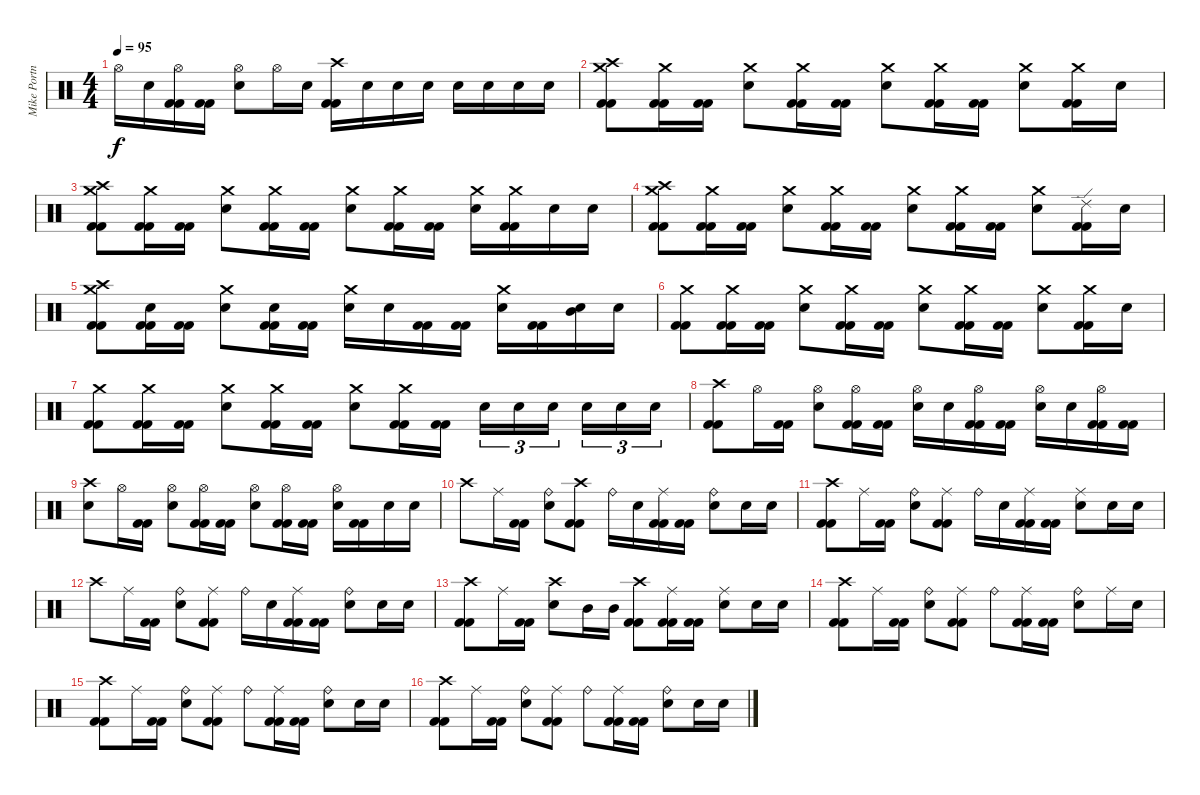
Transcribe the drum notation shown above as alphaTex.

\track ("Mike Portnoy" "Mike Portn") {instrument percussion}
\staff {score}
\articulation defaults
\ts (4 4)
\tempo 95
\clef neutral
\ks c "Hi-Hat (open)".16{dy f} "Snare (hit) 2".16
("Hi-Hat (open)" "Kick (hit) 2" "Kick (hit) 2").16 ("Kick (hit) 2" "Kick (hit) 2").16 ("Hi-Hat (open)" "Snare (hit) 2").8 "Hi-Hat (open)".16 "Snare (hit) 2".16 ("Crash high (hit)" "Kick (hit) 2" "Kick (hit) 2").16 "Snare (hit) 2".16 "Snare (hit) 2".16 "Snare (hit) 2".16 "Snare (hit) 2".16 "Snare (hit) 2".16 "Snare (hit) 2".16 "Snare (hit) 2".16 |
("Crash medium (hit)" "Crash high (hit)" "Kick (hit) 2" "Kick (hit) 2").8 ("Crash medium (hit)" "Kick (hit) 2" "Kick (hit) 2").16 ("Kick (hit) 2" "Kick (hit) 2").16 ("Crash medium (hit)" "Snare (hit) 2").8 ("Crash medium (hit)" "Kick (hit) 2" "Kick (hit) 2").16 ("Kick (hit) 2" "Kick (hit) 2").16 ("Crash medium (hit)" "Snare (hit) 2").8 ("Crash medium (hit)" "Kick (hit) 2" "Kick (hit) 2").16 ("Kick (hit) 2" "Kick (hit) 2").16 ("Crash medium (hit)" "Snare (hit) 2").8 ("Crash medium (hit)" "Kick (hit) 2" "Kick (hit) 2").16 "Snare (hit) 2".16 |
("Crash medium (hit)" "Crash high (hit)" "Kick (hit) 2" "Kick (hit) 2").8 ("Crash medium (hit)" "Kick (hit) 2" "Kick (hit) 2").16 ("Kick (hit) 2" "Kick (hit) 2").16 ("Crash medium (hit)" "Snare (hit) 2").8 ("Crash medium (hit)" "Kick (hit) 2" "Kick (hit) 2").16 ("Kick (hit) 2" "Kick (hit) 2").16 ("Crash medium (hit)" "Snare (hit) 2").8 ("Crash medium (hit)" "Kick (hit) 2" "Kick (hit) 2").16 ("Kick (hit) 2" "Kick (hit) 2").16 ("Crash medium (hit)" "Snare (hit) 2").16 ("Crash medium (hit)" "Kick (hit) 2" "Kick (hit) 2").16 "Snare (hit) 2".16 "Snare (hit) 2".16 |
("Crash medium (hit)" "Crash high (hit)" "Kick (hit) 2" "Kick (hit) 2").8 ("Crash medium (hit)" "Kick (hit) 2" "Kick (hit) 2").16 ("Kick (hit) 2" "Kick (hit) 2").16 ("Crash medium (hit)" "Snare (hit) 2").8 ("Crash medium (hit)" "Kick (hit) 2" "Kick (hit) 2").16 ("Kick (hit) 2" "Kick (hit) 2").16 ("Crash medium (hit)" "Snare (hit) 2").8 ("Crash medium (hit)" "Kick (hit) 2" "Kick (hit) 2").16 ("Kick (hit) 2" "Kick (hit) 2").16 ("Crash medium (hit)" "Snare (hit) 2").8 ("Ride (edge) 2" "Kick (hit) 2" "Kick (hit) 2").16 "Snare (hit) 2".16 |
("Crash medium (hit)" "Crash high (hit)" "Kick (hit) 2" "Kick (hit) 2").8 ("Snare (hit) 2" "Kick (hit) 2" "Kick (hit) 2").16 ("Kick (hit) 2" "Kick (hit) 2").16 ("Crash medium (hit)" "Snare (hit) 2").8 ("Snare (hit) 2" "Kick (hit) 2" "Kick (hit) 2").16 ("Kick (hit) 2" "Kick (hit) 2").16 ("Crash medium (hit)" "Snare (hit) 2").16 "Snare (hit) 2".16 ("Kick (hit) 2" "Kick (hit) 2").16 ("Kick (hit) 2" "Kick (hit) 2").16 ("Crash medium (hit)" "Snare (hit) 2").16 ("Kick (hit) 2" "Kick (hit) 2").16 ("Snare (hit) 2" "Mid Tom (hit)").16 "Snare (hit) 2".16 |
("Crash medium (hit)" "Kick (hit) 2" "Kick (hit) 2").8 ("Crash medium (hit)" "Kick (hit) 2" "Kick (hit) 2").16 ("Kick (hit) 2" "Kick (hit) 2").16 ("Crash medium (hit)" "Snare (hit) 2").8 ("Crash medium (hit)" "Kick (hit) 2" "Kick (hit) 2").16 ("Kick (hit) 2" "Kick (hit) 2").16 ("Crash medium (hit)" "Snare (hit) 2").8 ("Crash medium (hit)" "Kick (hit) 2" "Kick (hit) 2").16 ("Kick (hit) 2" "Kick (hit) 2").16 ("Crash medium (hit)" "Snare (hit) 2").8 ("Crash medium (hit)" "Kick (hit) 2" "Kick (hit) 2").16 "Snare (hit) 2".16 |
("Crash medium (hit)" "Kick (hit) 2" "Kick (hit) 2").8 ("Crash medium (hit)" "Kick (hit) 2" "Kick (hit) 2").16 ("Kick (hit) 2" "Kick (hit) 2").16 ("Crash medium (hit)" "Snare (hit) 2").8 ("Crash medium (hit)" "Kick (hit) 2" "Kick (hit) 2").16 ("Kick (hit) 2" "Kick (hit) 2").16 ("Crash medium (hit)" "Snare (hit) 2").8 ("Crash medium (hit)" "Kick (hit) 2" "Kick (hit) 2").16 ("Kick (hit) 2" "Kick (hit) 2").16 "Snare (hit) 2".16{tu (3 2)} "Snare (hit) 2".16{tu (3 2)} "Snare (hit) 2".16{tu (3 2)} "Snare (hit) 2".16{tu (3 2)} "Snare (hit) 2".16{tu (3 2)} "Snare (hit) 2".16{tu (3 2)} |
("Crash high (hit)" "Kick (hit) 2" "Kick (hit) 2").8 "Hi-Hat (open)".16 ("Kick (hit) 2" "Kick (hit) 2").16 ("Hi-Hat (open)" "Snare (hit) 2").8 ("Hi-Hat (open)" "Kick (hit) 2" "Kick (hit) 2").16 ("Kick (hit) 2" "Kick (hit) 2").16 ("Hi-Hat (open)" "Snare (hit) 2").16 "Snare (hit) 2".16 ("Hi-Hat (open)" "Kick (hit) 2" "Kick (hit) 2").16 ("Kick (hit) 2" "Kick (hit) 2").16 ("Hi-Hat (open)" "Snare (hit) 2").16 "Snare (hit) 2".16 ("Hi-Hat (open)" "Kick (hit) 2" "Kick (hit) 2").16 ("Kick (hit) 2" "Kick (hit) 2").16 |
("Crash high (hit)" "Snare (hit) 2").8 "Hi-Hat (open)".16 ("Kick (hit) 2" "Kick (hit) 2").16 ("Hi-Hat (open)" "Snare (hit) 2").8 ("Hi-Hat (open)" "Kick (hit) 2" "Kick (hit) 2").16 ("Kick (hit) 2" "Kick (hit) 2").16 ("Hi-Hat (open)" "Snare (hit) 2").8 ("Hi-Hat (open)" "Kick (hit) 2" "Kick (hit) 2").16 ("Kick (hit) 2" "Kick (hit) 2").16 ("Hi-Hat (open)" "Snare (hit) 2").16 ("Kick (hit) 2" "Kick (hit) 2").16 "Snare (hit) 2".16 "Snare (hit) 2".16 |
"Crash high (hit)".8 "Ride (middle)".16 ("Kick (hit) 2" "Kick (hit) 2").16 ("Ride (bell)" "Snare (hit) 2").8 ("Crash high (hit)" "Kick (hit) 2" "Kick (hit) 2").8 "Ride (bell)".16 "Snare (hit) 2".16 ("Ride (middle)" "Kick (hit) 2" "Kick (hit) 2").16 ("Kick (hit) 2" "Kick (hit) 2").16 ("Ride (bell)" "Snare (hit) 2").8 "Snare (hit) 2".16 "Snare (hit) 2".16 |
("Crash high (hit)" "Kick (hit) 2" "Kick (hit) 2").8 "Ride (middle)".16 ("Kick (hit) 2" "Kick (hit) 2").16 ("Ride (bell)" "Snare (hit) 2").8 ("Ride (middle)" "Kick (hit) 2" "Kick (hit) 2").8 "Ride (bell)".16 "Snare (hit) 2".16 ("Ride (middle)" "Kick (hit) 2" "Kick (hit) 2").16 ("Kick (hit) 2" "Kick (hit) 2").16 ("Ride (middle)" "Snare (hit) 2").8 "Snare (hit) 2".16 "Snare (hit) 2".16 |
"Crash high (hit)".8 "Ride (middle)".16 ("Kick (hit) 2" "Kick (hit) 2").16 ("Ride (bell)" "Snare (hit) 2").8 ("Ride (middle)" "Kick (hit) 2" "Kick (hit) 2").8 "Ride (bell)".16 "Snare (hit) 2".16 ("Ride (middle)" "Kick (hit) 2" "Kick (hit) 2").16 ("Kick (hit) 2" "Kick (hit) 2").16 ("Ride (bell)" "Snare (hit) 2").8 "Snare (hit) 2".16 "Snare (hit) 2".16 |
("Crash high (hit)" "Kick (hit) 2" "Kick (hit) 2").8 "Ride (middle)".16 ("Kick (hit) 2" "Kick (hit) 2").16 ("Crash high (hit)" "Snare (hit) 2").8 "Mid Tom (hit)".16 "Mid Tom (hit)".16 ("Crash high (hit)" "Kick (hit) 2" "Kick (hit) 2").8 ("Ride (middle)" "Kick (hit) 2" "Kick (hit) 2").16 ("Kick (hit) 2" "Kick (hit) 2").16 ("Ride (middle)" "Snare (hit) 2").8 "Snare (hit) 2".16 "Snare (hit) 2".16 |
("Crash high (hit)" "Kick (hit) 2" "Kick (hit) 2").8 "Ride (middle)".16 ("Kick (hit) 2" "Kick (hit) 2").16 ("Ride (bell)" "Snare (hit) 2").8 ("Ride (middle)" "Kick (hit) 2" "Kick (hit) 2").8 "Ride (bell)".8 ("Ride (middle)" "Kick (hit) 2" "Kick (hit) 2").16 ("Kick (hit) 2" "Kick (hit) 2").16 ("Ride (bell)" "Snare (hit) 2").8 "Ride (middle)".16 "Snare (hit) 2".16 |
("Crash high (hit)" "Kick (hit) 2" "Kick (hit) 2").8 "Ride (middle)".16 ("Kick (hit) 2" "Kick (hit) 2").16 ("Ride (bell)" "Snare (hit) 2").8 ("Ride (middle)" "Kick (hit) 2" "Kick (hit) 2").8 "Ride (bell)".8 ("Ride (middle)" "Kick (hit) 2" "Kick (hit) 2").16 ("Kick (hit) 2" "Kick (hit) 2").16 ("Ride (bell)" "Snare (hit) 2").8 "Snare (hit) 2".16 "Snare (hit) 2".16 |
("Crash high (hit)" "Kick (hit) 2" "Kick (hit) 2").8 "Ride (middle)".16 ("Kick (hit) 2" "Kick (hit) 2").16 ("Ride (bell)" "Snare (hit) 2").8 ("Ride (middle)" "Kick (hit) 2" "Kick (hit) 2").8 "Ride (bell)".8 ("Ride (middle)" "Kick (hit) 2" "Kick (hit) 2").16 ("Kick (hit) 2" "Kick (hit) 2").16 ("Ride (bell)" "Snare (hit) 2").8 "Snare (hit) 2".16 "Snare (hit) 2".16
